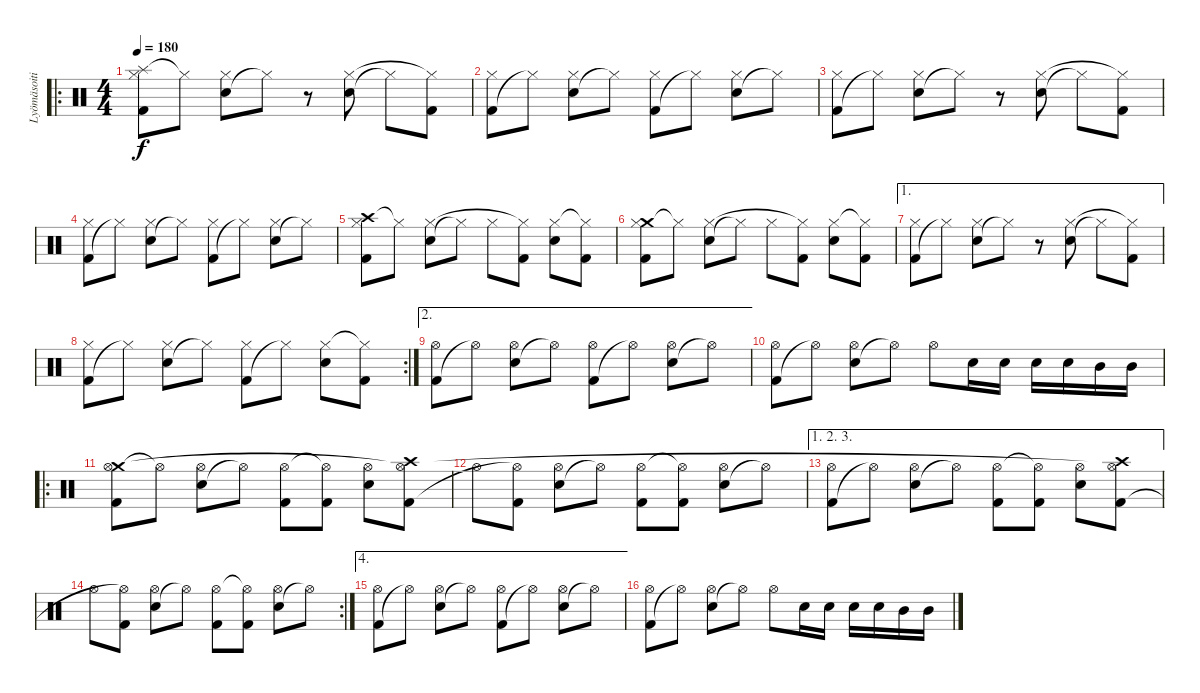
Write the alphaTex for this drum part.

\track ("Lyömäsoitin" "Lyömäsoiti") {instrument percussion}
\staff {score}
\articulation defaults
\ro
\ts (4 4)
\tempo 180
\clef neutral
\ks c
("Splash (hit)" "Kick (hit) 2" "Hi-Hat (closed)").8{dy f} "Hi-Hat (closed)"{t}.8 ("Electric Snare (hit)" "Hi-Hat (closed)").8 "Hi-Hat (closed)"{t}.8 r.8 ("Electric Snare (hit)" "Hi-Hat (closed)").8 "Hi-Hat (closed)"{t}.8 ("Kick (hit) 2" "Hi-Hat (closed)"{t}).8 |
("Kick (hit) 2" "Hi-Hat (closed)").8 "Hi-Hat (closed)"{t}.8 ("Electric Snare (hit)" "Hi-Hat (closed)").8 "Hi-Hat (closed)"{t}.8 ("Kick (hit) 2" "Hi-Hat (closed)").8 "Hi-Hat (closed)"{t}.8 ("Electric Snare (hit)" "Hi-Hat (closed)").8 "Hi-Hat (closed)"{t}.8 |
("Kick (hit) 2" "Hi-Hat (closed)").8 "Hi-Hat (closed)"{t}.8 ("Electric Snare (hit)" "Hi-Hat (closed)").8 "Hi-Hat (closed)"{t}.8 r.8 ("Electric Snare (hit)" "Hi-Hat (closed)").8 "Hi-Hat (closed)"{t}.8 ("Kick (hit) 2" "Hi-Hat (closed)"{t}).8 |
("Kick (hit) 2" "Hi-Hat (closed)").8 "Hi-Hat (closed)"{t}.8 ("Electric Snare (hit)" "Hi-Hat (closed)").8 "Hi-Hat (closed)"{t}.8 ("Kick (hit) 2" "Hi-Hat (closed)").8 "Hi-Hat (closed)"{t}.8 ("Electric Snare (hit)" "Hi-Hat (closed)").8 "Hi-Hat (closed)"{t}.8 |
("Crash high (hit)" "Kick (hit) 2" "Hi-Hat (closed)").8 "Hi-Hat (closed)"{t}.8 ("Electric Snare (hit)" "Hi-Hat (closed)").8 "Hi-Hat (closed)"{t}.8 "Hi-Hat (closed)".8 ("Kick (hit) 2" "Hi-Hat (closed)"{t}).8 ("Electric Snare (hit)" "Hi-Hat (closed)").8 ("Kick (hit) 2" "Hi-Hat (closed)"{t}).8 |
("Crash medium (hit)" "Kick (hit) 2" "Hi-Hat (closed)").8 "Hi-Hat (closed)"{t}.8 ("Electric Snare (hit)" "Hi-Hat (closed)").8 "Hi-Hat (closed)"{t}.8 "Hi-Hat (closed)".8 ("Kick (hit) 2" "Hi-Hat (closed)"{t}).8 ("Electric Snare (hit)" "Hi-Hat (closed)").8 ("Kick (hit) 2" "Hi-Hat (closed)"{t}).8 |
\ae 1
("Kick (hit) 2" "Hi-Hat (closed)").8 "Hi-Hat (closed)"{t}.8 ("Electric Snare (hit)" "Hi-Hat (closed)").8 "Hi-Hat (closed)"{t}.8 r.8 ("Electric Snare (hit)" "Hi-Hat (closed)").8 "Hi-Hat (closed)"{t}.8 ("Kick (hit) 2" "Hi-Hat (closed)"{t}).8 |
\rc 2
("Kick (hit) 2" "Hi-Hat (closed)").8 "Hi-Hat (closed)"{t}.8 ("Electric Snare (hit)" "Hi-Hat (closed)").8 "Hi-Hat (closed)"{t}.8 ("Kick (hit) 2" "Hi-Hat (closed)").8 "Hi-Hat (closed)"{t}.8 ("Electric Snare (hit)" "Hi-Hat (closed)").8 ("Kick (hit) 2" "Hi-Hat (closed)"{t}).8 |
\ae 2
("Kick (hit) 2" "Hi-Hat (open)").8 "Hi-Hat (open)"{t}.8 ("Electric Snare (hit)" "Hi-Hat (open)").8 "Hi-Hat (open)"{t}.8 ("Kick (hit) 2" "Hi-Hat (open)").8 "Hi-Hat (open)"{t}.8 ("Electric Snare (hit)" "Hi-Hat (open)").8 "Hi-Hat (open)"{t}.8 |
("Kick (hit) 2" "Hi-Hat (open)").8 "Hi-Hat (open)"{t}.8 ("Electric Snare (hit)" "Hi-Hat (open)").8 "Hi-Hat (open)"{t}.8 "Hi-Hat (open)".8 "Electric Snare (hit)".16 "Electric Snare (hit)".16 "Electric Snare (hit)".16 "Electric Snare (hit)".16 "Mid Tom (hit)".16 "Mid Tom (hit)".16 |
\ro
("Crash medium (hit)" "Kick (hit) 2" "Hi-Hat (open)").8 "Hi-Hat (open)"{t}.8 ("Electric Snare (hit)" "Hi-Hat (open)").8 "Hi-Hat (open)"{t}.8 ("Kick (hit) 2" "Hi-Hat (open)").8 ("Kick (hit) 2" "Hi-Hat (open)"{t}).8 ("Electric Snare (hit)" "Hi-Hat (open)").8 ("Crash high (hit)" "Kick (hit) 2" "Hi-Hat (open)"{t}).8 |
"Hi-Hat (open)".8 ("Kick (hit) 2" "Hi-Hat (open)"{t}).8 ("Electric Snare (hit)" "Hi-Hat (open)").8 "Hi-Hat (open)"{t}.8 ("Kick (hit) 2" "Hi-Hat (open)").8 ("Kick (hit) 2" "Hi-Hat (open)"{t}).8 ("Electric Snare (hit)" "Hi-Hat (open)").8 "Hi-Hat (open)"{t}.8 |
\ae (1 2 3)
("Kick (hit) 2" "Hi-Hat (open)").8 "Hi-Hat (open)"{t}.8 ("Electric Snare (hit)" "Hi-Hat (open)").8 "Hi-Hat (open)"{t}.8 ("Kick (hit) 2" "Hi-Hat (open)").8 ("Kick (hit) 2" "Hi-Hat (open)"{t}).8 ("Electric Snare (hit)" "Hi-Hat (open)").8 ("Crash high (hit)" "Kick (hit) 2" "Hi-Hat (open)"{t}).8 |
\rc 2 "Hi-Hat (open)".8
("Kick (hit) 2" "Hi-Hat (open)"{t}).8 ("Electric Snare (hit)" "Hi-Hat (open)").8 "Hi-Hat (open)"{t}.8 ("Kick (hit) 2" "Hi-Hat (open)").8 ("Kick (hit) 2" "Hi-Hat (open)"{t}).8 ("Electric Snare (hit)" "Hi-Hat (open)").8 "Hi-Hat (open)"{t}.8 |
\ae 4
("Kick (hit) 2" "Hi-Hat (open)").8 "Hi-Hat (open)"{t}.8 ("Electric Snare (hit)" "Hi-Hat (open)").8 "Hi-Hat (open)"{t}.8 ("Kick (hit) 2" "Hi-Hat (open)").8 "Hi-Hat (open)"{t}.8 ("Electric Snare (hit)" "Hi-Hat (open)").8 "Hi-Hat (open)"{t}.8 |
("Kick (hit) 2" "Hi-Hat (open)").8 "Hi-Hat (open)"{t}.8 ("Electric Snare (hit)" "Hi-Hat (open)").8 "Hi-Hat (open)"{t}.8 "Hi-Hat (open)".8 "Electric Snare (hit)".16 "Electric Snare (hit)".16 "Electric Snare (hit)".16 "Electric Snare (hit)".16 "Mid Tom (hit)".16 "Mid Tom (hit)".16
